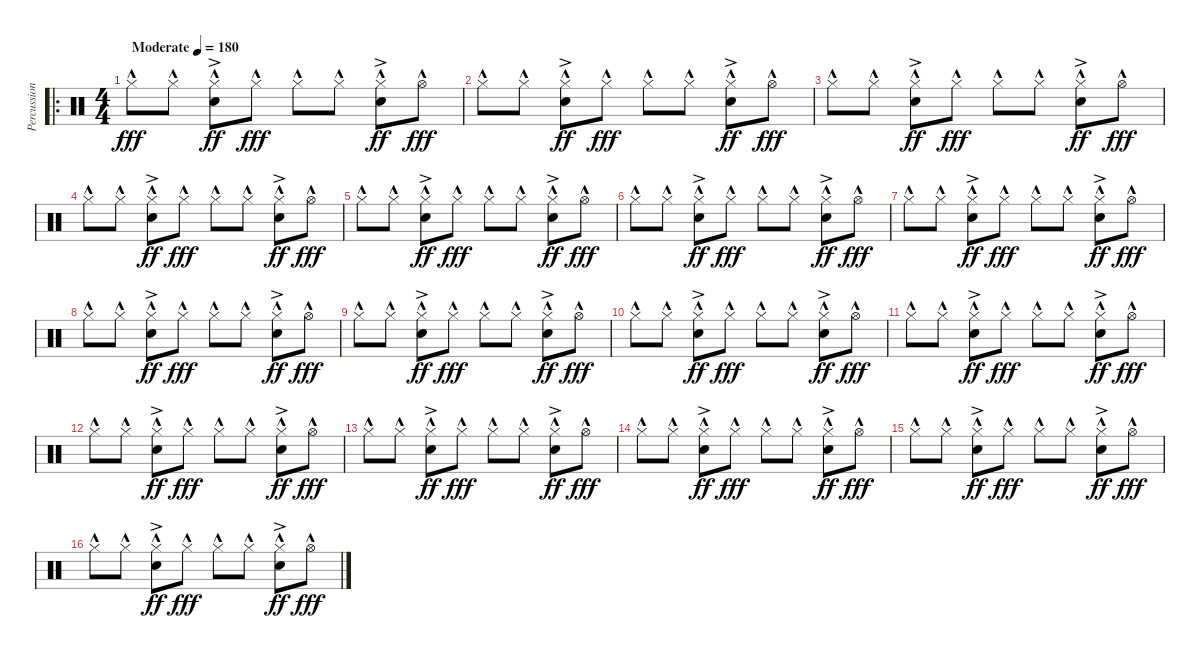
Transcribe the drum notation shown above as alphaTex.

\track ("Percussion" "Percussion") {instrument percussion}
\staff {score}
\articulation defaults
\ro
\ts (4 4)
\tempo (180 "Moderate")
\clef neutral
\ks c "Hi-Hat (closed)"{hac}.8{dy fff} "Hi-Hat (closed)"{hac}.8
("Hi-Hat (closed)"{hac} "Snare (hit) 2"{ac}).8{dy ff} "Hi-Hat (closed)"{hac}.8{dy fff} "Hi-Hat (closed)"{hac}.8 "Hi-Hat (closed)"{hac}.8 ("Hi-Hat (closed)"{hac} "Snare (hit) 2"{ac}).8{dy ff} "Hi-Hat (open)"{hac}.8{dy fff} |
"Hi-Hat (closed)"{hac}.8 "Hi-Hat (closed)"{hac}.8 ("Hi-Hat (closed)"{hac} "Snare (hit) 2"{ac}).8{dy ff} "Hi-Hat (closed)"{hac}.8{dy fff} "Hi-Hat (closed)"{hac}.8 "Hi-Hat (closed)"{hac}.8 ("Hi-Hat (closed)"{hac} "Snare (hit) 2"{ac}).8{dy ff} "Hi-Hat (open)"{hac}.8{dy fff} |
"Hi-Hat (closed)"{hac}.8 "Hi-Hat (closed)"{hac}.8 ("Hi-Hat (closed)"{hac} "Snare (hit) 2"{ac}).8{dy ff} "Hi-Hat (closed)"{hac}.8{dy fff} "Hi-Hat (closed)"{hac}.8 "Hi-Hat (closed)"{hac}.8 ("Hi-Hat (closed)"{hac} "Snare (hit) 2"{ac}).8{dy ff} "Hi-Hat (open)"{hac}.8{dy fff} |
"Hi-Hat (closed)"{hac}.8 "Hi-Hat (closed)"{hac}.8 ("Hi-Hat (closed)"{hac} "Snare (hit) 2"{ac}).8{dy ff} "Hi-Hat (closed)"{hac}.8{dy fff} "Hi-Hat (closed)"{hac}.8 "Hi-Hat (closed)"{hac}.8 ("Hi-Hat (closed)"{hac} "Snare (hit) 2"{ac}).8{dy ff} "Hi-Hat (open)"{hac}.8{dy fff} |
"Hi-Hat (closed)"{hac}.8 "Hi-Hat (closed)"{hac}.8 ("Hi-Hat (closed)"{hac} "Snare (hit) 2"{ac}).8{dy ff} "Hi-Hat (closed)"{hac}.8{dy fff} "Hi-Hat (closed)"{hac}.8 "Hi-Hat (closed)"{hac}.8 ("Hi-Hat (closed)"{hac} "Snare (hit) 2"{ac}).8{dy ff} "Hi-Hat (open)"{hac}.8{dy fff} |
"Hi-Hat (closed)"{hac}.8 "Hi-Hat (closed)"{hac}.8 ("Hi-Hat (closed)"{hac} "Snare (hit) 2"{ac}).8{dy ff} "Hi-Hat (closed)"{hac}.8{dy fff} "Hi-Hat (closed)"{hac}.8 "Hi-Hat (closed)"{hac}.8 ("Hi-Hat (closed)"{hac} "Snare (hit) 2"{ac}).8{dy ff} "Hi-Hat (open)"{hac}.8{dy fff} |
"Hi-Hat (closed)"{hac}.8 "Hi-Hat (closed)"{hac}.8 ("Hi-Hat (closed)"{hac} "Snare (hit) 2"{ac}).8{dy ff} "Hi-Hat (closed)"{hac}.8{dy fff} "Hi-Hat (closed)"{hac}.8 "Hi-Hat (closed)"{hac}.8 ("Hi-Hat (closed)"{hac} "Snare (hit) 2"{ac}).8{dy ff} "Hi-Hat (open)"{hac}.8{dy fff} |
"Hi-Hat (closed)"{hac}.8 "Hi-Hat (closed)"{hac}.8 ("Hi-Hat (closed)"{hac} "Snare (hit) 2"{ac}).8{dy ff} "Hi-Hat (closed)"{hac}.8{dy fff} "Hi-Hat (closed)"{hac}.8 "Hi-Hat (closed)"{hac}.8 ("Hi-Hat (closed)"{hac} "Snare (hit) 2"{ac}).8{dy ff} "Hi-Hat (open)"{hac}.8{dy fff} |
"Hi-Hat (closed)"{hac}.8 "Hi-Hat (closed)"{hac}.8 ("Hi-Hat (closed)"{hac} "Snare (hit) 2"{ac}).8{dy ff} "Hi-Hat (closed)"{hac}.8{dy fff} "Hi-Hat (closed)"{hac}.8 "Hi-Hat (closed)"{hac}.8 ("Hi-Hat (closed)"{hac} "Snare (hit) 2"{ac}).8{dy ff} "Hi-Hat (open)"{hac}.8{dy fff} |
"Hi-Hat (closed)"{hac}.8 "Hi-Hat (closed)"{hac}.8 ("Hi-Hat (closed)"{hac} "Snare (hit) 2"{ac}).8{dy ff} "Hi-Hat (closed)"{hac}.8{dy fff} "Hi-Hat (closed)"{hac}.8 "Hi-Hat (closed)"{hac}.8 ("Hi-Hat (closed)"{hac} "Snare (hit) 2"{ac}).8{dy ff} "Hi-Hat (open)"{hac}.8{dy fff} |
"Hi-Hat (closed)"{hac}.8 "Hi-Hat (closed)"{hac}.8 ("Hi-Hat (closed)"{hac} "Snare (hit) 2"{ac}).8{dy ff} "Hi-Hat (closed)"{hac}.8{dy fff} "Hi-Hat (closed)"{hac}.8 "Hi-Hat (closed)"{hac}.8 ("Hi-Hat (closed)"{hac} "Snare (hit) 2"{ac}).8{dy ff} "Hi-Hat (open)"{hac}.8{dy fff} |
"Hi-Hat (closed)"{hac}.8 "Hi-Hat (closed)"{hac}.8 ("Hi-Hat (closed)"{hac} "Snare (hit) 2"{ac}).8{dy ff} "Hi-Hat (closed)"{hac}.8{dy fff} "Hi-Hat (closed)"{hac}.8 "Hi-Hat (closed)"{hac}.8 ("Hi-Hat (closed)"{hac} "Snare (hit) 2"{ac}).8{dy ff} "Hi-Hat (open)"{hac}.8{dy fff} |
"Hi-Hat (closed)"{hac}.8 "Hi-Hat (closed)"{hac}.8 ("Hi-Hat (closed)"{hac} "Snare (hit) 2"{ac}).8{dy ff} "Hi-Hat (closed)"{hac}.8{dy fff} "Hi-Hat (closed)"{hac}.8 "Hi-Hat (closed)"{hac}.8 ("Hi-Hat (closed)"{hac} "Snare (hit) 2"{ac}).8{dy ff} "Hi-Hat (open)"{hac}.8{dy fff} |
"Hi-Hat (closed)"{hac}.8 "Hi-Hat (closed)"{hac}.8 ("Hi-Hat (closed)"{hac} "Snare (hit) 2"{ac}).8{dy ff} "Hi-Hat (closed)"{hac}.8{dy fff} "Hi-Hat (closed)"{hac}.8 "Hi-Hat (closed)"{hac}.8 ("Hi-Hat (closed)"{hac} "Snare (hit) 2"{ac}).8{dy ff} "Hi-Hat (open)"{hac}.8{dy fff} |
"Hi-Hat (closed)"{hac}.8 "Hi-Hat (closed)"{hac}.8 ("Hi-Hat (closed)"{hac} "Snare (hit) 2"{ac}).8{dy ff} "Hi-Hat (closed)"{hac}.8{dy fff} "Hi-Hat (closed)"{hac}.8 "Hi-Hat (closed)"{hac}.8 ("Hi-Hat (closed)"{hac} "Snare (hit) 2"{ac}).8{dy ff} "Hi-Hat (open)"{hac}.8{dy fff} |
"Hi-Hat (closed)"{hac}.8 "Hi-Hat (closed)"{hac}.8 ("Hi-Hat (closed)"{hac} "Snare (hit) 2"{ac}).8{dy ff} "Hi-Hat (closed)"{hac}.8{dy fff} "Hi-Hat (closed)"{hac}.8 "Hi-Hat (closed)"{hac}.8 ("Hi-Hat (closed)"{hac} "Snare (hit) 2"{ac}).8{dy ff} "Hi-Hat (open)"{hac}.8{dy fff}
